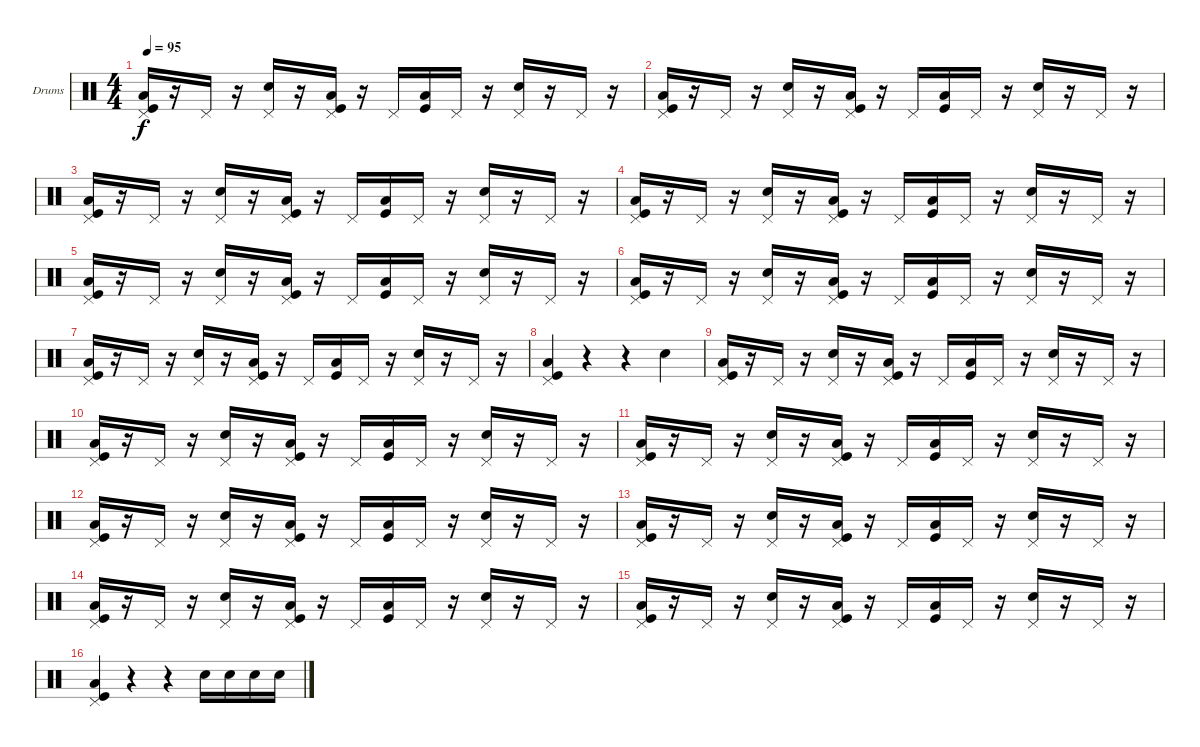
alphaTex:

\bracketExtendMode groupsimilarinstruments
\firstSystemTrackNameOrientation horizontal
\otherSystemsTrackNameOrientation horizontal
\track ("Drumkit" "Drums") {instrument percussion}
\staff {score}
\articulation defaults
\ts (4 4)
\tempo 95
\clef neutral
\ks c
("Pedal Hi-Hat (hit)" "Low Tom (hit)" "Kick (hit)").16{dy f} r.16 "Pedal Hi-Hat (hit)".16 r.16 ("Pedal Hi-Hat (hit)" "Snare (hit) 2").16 r.16 ("Pedal Hi-Hat (hit)" "Low Tom (hit)" "Kick (hit)").16 r.16 "Pedal Hi-Hat (hit)".16 ("Low Tom (hit)" "Kick (hit)").16 "Pedal Hi-Hat (hit)".16 r.16 ("Pedal Hi-Hat (hit)" "Snare (hit) 2").16 r.16 "Pedal Hi-Hat (hit)".16 r.16 |
("Pedal Hi-Hat (hit)" "Low Tom (hit)" "Kick (hit)").16 r.16 "Pedal Hi-Hat (hit)".16 r.16 ("Pedal Hi-Hat (hit)" "Snare (hit) 2").16 r.16 ("Pedal Hi-Hat (hit)" "Low Tom (hit)" "Kick (hit)").16 r.16 "Pedal Hi-Hat (hit)".16 ("Low Tom (hit)" "Kick (hit)").16 "Pedal Hi-Hat (hit)".16 r.16 ("Pedal Hi-Hat (hit)" "Snare (hit) 2").16 r.16 "Pedal Hi-Hat (hit)".16 r.16 |
("Pedal Hi-Hat (hit)" "Low Tom (hit)" "Kick (hit)").16 r.16 "Pedal Hi-Hat (hit)".16 r.16 ("Pedal Hi-Hat (hit)" "Snare (hit) 2").16 r.16 ("Pedal Hi-Hat (hit)" "Low Tom (hit)" "Kick (hit)").16 r.16 "Pedal Hi-Hat (hit)".16 ("Low Tom (hit)" "Kick (hit)").16 "Pedal Hi-Hat (hit)".16 r.16 ("Pedal Hi-Hat (hit)" "Snare (hit) 2").16 r.16 "Pedal Hi-Hat (hit)".16 r.16 |
("Pedal Hi-Hat (hit)" "Low Tom (hit)" "Kick (hit)").16 r.16 "Pedal Hi-Hat (hit)".16 r.16 ("Pedal Hi-Hat (hit)" "Snare (hit) 2").16 r.16 ("Pedal Hi-Hat (hit)" "Low Tom (hit)" "Kick (hit)").16 r.16 "Pedal Hi-Hat (hit)".16 ("Low Tom (hit)" "Kick (hit)").16 "Pedal Hi-Hat (hit)".16 r.16 ("Pedal Hi-Hat (hit)" "Snare (hit) 2").16 r.16 "Pedal Hi-Hat (hit)".16 r.16 |
("Pedal Hi-Hat (hit)" "Low Tom (hit)" "Kick (hit)").16 r.16 "Pedal Hi-Hat (hit)".16 r.16 ("Pedal Hi-Hat (hit)" "Snare (hit) 2").16 r.16 ("Pedal Hi-Hat (hit)" "Low Tom (hit)" "Kick (hit)").16 r.16 "Pedal Hi-Hat (hit)".16 ("Low Tom (hit)" "Kick (hit)").16 "Pedal Hi-Hat (hit)".16 r.16 ("Pedal Hi-Hat (hit)" "Snare (hit) 2").16 r.16 "Pedal Hi-Hat (hit)".16 r.16 |
("Pedal Hi-Hat (hit)" "Low Tom (hit)" "Kick (hit)").16 r.16 "Pedal Hi-Hat (hit)".16 r.16 ("Pedal Hi-Hat (hit)" "Snare (hit) 2").16 r.16 ("Pedal Hi-Hat (hit)" "Low Tom (hit)" "Kick (hit)").16 r.16 "Pedal Hi-Hat (hit)".16 ("Low Tom (hit)" "Kick (hit)").16 "Pedal Hi-Hat (hit)".16 r.16 ("Pedal Hi-Hat (hit)" "Snare (hit) 2").16 r.16 "Pedal Hi-Hat (hit)".16 r.16 |
("Pedal Hi-Hat (hit)" "Low Tom (hit)" "Kick (hit)").16 r.16 "Pedal Hi-Hat (hit)".16 r.16 ("Pedal Hi-Hat (hit)" "Snare (hit) 2").16 r.16 ("Pedal Hi-Hat (hit)" "Low Tom (hit)" "Kick (hit)").16 r.16 "Pedal Hi-Hat (hit)".16 ("Low Tom (hit)" "Kick (hit)").16 "Pedal Hi-Hat (hit)".16 r.16 ("Pedal Hi-Hat (hit)" "Snare (hit) 2").16 r.16 "Pedal Hi-Hat (hit)".16 r.16 |
("Pedal Hi-Hat (hit)" "Low Tom (hit)" "Kick (hit)").4 r.4 r.4 "Snare (hit) 2".4 |
("Pedal Hi-Hat (hit)" "Low Tom (hit)" "Kick (hit)").16 r.16 "Pedal Hi-Hat (hit)".16 r.16 ("Pedal Hi-Hat (hit)" "Snare (hit) 2").16 r.16 ("Pedal Hi-Hat (hit)" "Low Tom (hit)" "Kick (hit)").16 r.16 "Pedal Hi-Hat (hit)".16 ("Low Tom (hit)" "Kick (hit)").16 "Pedal Hi-Hat (hit)".16 r.16 ("Pedal Hi-Hat (hit)" "Snare (hit) 2").16 r.16 "Pedal Hi-Hat (hit)".16 r.16 |
("Pedal Hi-Hat (hit)" "Low Tom (hit)" "Kick (hit)").16 r.16 "Pedal Hi-Hat (hit)".16 r.16 ("Pedal Hi-Hat (hit)" "Snare (hit) 2").16 r.16 ("Pedal Hi-Hat (hit)" "Low Tom (hit)" "Kick (hit)").16 r.16 "Pedal Hi-Hat (hit)".16 ("Low Tom (hit)" "Kick (hit)").16 "Pedal Hi-Hat (hit)".16 r.16 ("Pedal Hi-Hat (hit)" "Snare (hit) 2").16 r.16 "Pedal Hi-Hat (hit)".16 r.16 |
("Pedal Hi-Hat (hit)" "Low Tom (hit)" "Kick (hit)").16 r.16 "Pedal Hi-Hat (hit)".16 r.16 ("Pedal Hi-Hat (hit)" "Snare (hit) 2").16 r.16 ("Pedal Hi-Hat (hit)" "Low Tom (hit)" "Kick (hit)").16 r.16 "Pedal Hi-Hat (hit)".16 ("Low Tom (hit)" "Kick (hit)").16 "Pedal Hi-Hat (hit)".16 r.16 ("Pedal Hi-Hat (hit)" "Snare (hit) 2").16 r.16 "Pedal Hi-Hat (hit)".16 r.16 |
("Pedal Hi-Hat (hit)" "Low Tom (hit)" "Kick (hit)").16 r.16 "Pedal Hi-Hat (hit)".16 r.16 ("Pedal Hi-Hat (hit)" "Snare (hit) 2").16 r.16 ("Pedal Hi-Hat (hit)" "Low Tom (hit)" "Kick (hit)").16 r.16 "Pedal Hi-Hat (hit)".16 ("Low Tom (hit)" "Kick (hit)").16 "Pedal Hi-Hat (hit)".16 r.16 ("Pedal Hi-Hat (hit)" "Snare (hit) 2").16 r.16 "Pedal Hi-Hat (hit)".16 r.16 |
("Pedal Hi-Hat (hit)" "Low Tom (hit)" "Kick (hit)").16 r.16 "Pedal Hi-Hat (hit)".16 r.16 ("Pedal Hi-Hat (hit)" "Snare (hit) 2").16 r.16 ("Pedal Hi-Hat (hit)" "Low Tom (hit)" "Kick (hit)").16 r.16 "Pedal Hi-Hat (hit)".16 ("Low Tom (hit)" "Kick (hit)").16 "Pedal Hi-Hat (hit)".16 r.16 ("Pedal Hi-Hat (hit)" "Snare (hit) 2").16 r.16 "Pedal Hi-Hat (hit)".16 r.16 |
("Pedal Hi-Hat (hit)" "Low Tom (hit)" "Kick (hit)").16 r.16 "Pedal Hi-Hat (hit)".16 r.16 ("Pedal Hi-Hat (hit)" "Snare (hit) 2").16 r.16 ("Pedal Hi-Hat (hit)" "Low Tom (hit)" "Kick (hit)").16 r.16 "Pedal Hi-Hat (hit)".16 ("Low Tom (hit)" "Kick (hit)").16 "Pedal Hi-Hat (hit)".16 r.16 ("Pedal Hi-Hat (hit)" "Snare (hit) 2").16 r.16 "Pedal Hi-Hat (hit)".16 r.16 |
("Pedal Hi-Hat (hit)" "Low Tom (hit)" "Kick (hit)").16 r.16 "Pedal Hi-Hat (hit)".16 r.16 ("Pedal Hi-Hat (hit)" "Snare (hit) 2").16 r.16 ("Pedal Hi-Hat (hit)" "Low Tom (hit)" "Kick (hit)").16 r.16 "Pedal Hi-Hat (hit)".16 ("Low Tom (hit)" "Kick (hit)").16 "Pedal Hi-Hat (hit)".16 r.16 ("Pedal Hi-Hat (hit)" "Snare (hit) 2").16 r.16 "Pedal Hi-Hat (hit)".16 r.16 |
("Pedal Hi-Hat (hit)" "Low Tom (hit)" "Kick (hit)").4 r.4 r.4 "Snare (hit) 2".16 "Snare (hit) 2".16 "Snare (hit) 2".16 "Snare (hit) 2".16
